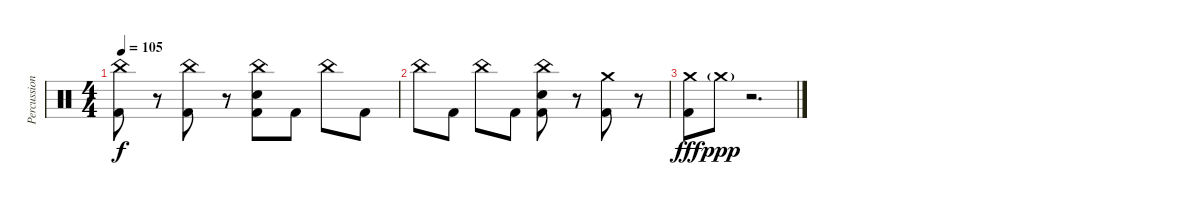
\track ("Percussion" "Percussion") {instrument percussion}
\staff {score}
\articulation defaults
\ts (4 4)
\tempo 105
\clef neutral
\ks c
("China (hit)" "Kick (hit) 2").8{dy f} r.8 ("China (hit)" "Kick (hit) 2").8 r.8 ("China (hit)" "Electric Snare (hit)" "Kick (hit) 2").8 "Kick (hit) 2".8 "China (hit)".8 "Kick (hit) 2".8 |
"China (hit)".8 "Kick (hit) 2".8 "China (hit)".8 "Kick (hit) 2".8 ("China (hit)" "Electric Snare (hit)" "Kick (hit) 2").8 r.8 ("Crash medium (hit)" "Kick (hit) 2").8 r.8 |
("Crash medium (hit)" "Kick (hit) 2").8{dy fff} "Crash medium (hit)"{g}.8{dy ppp} r.2{d}
